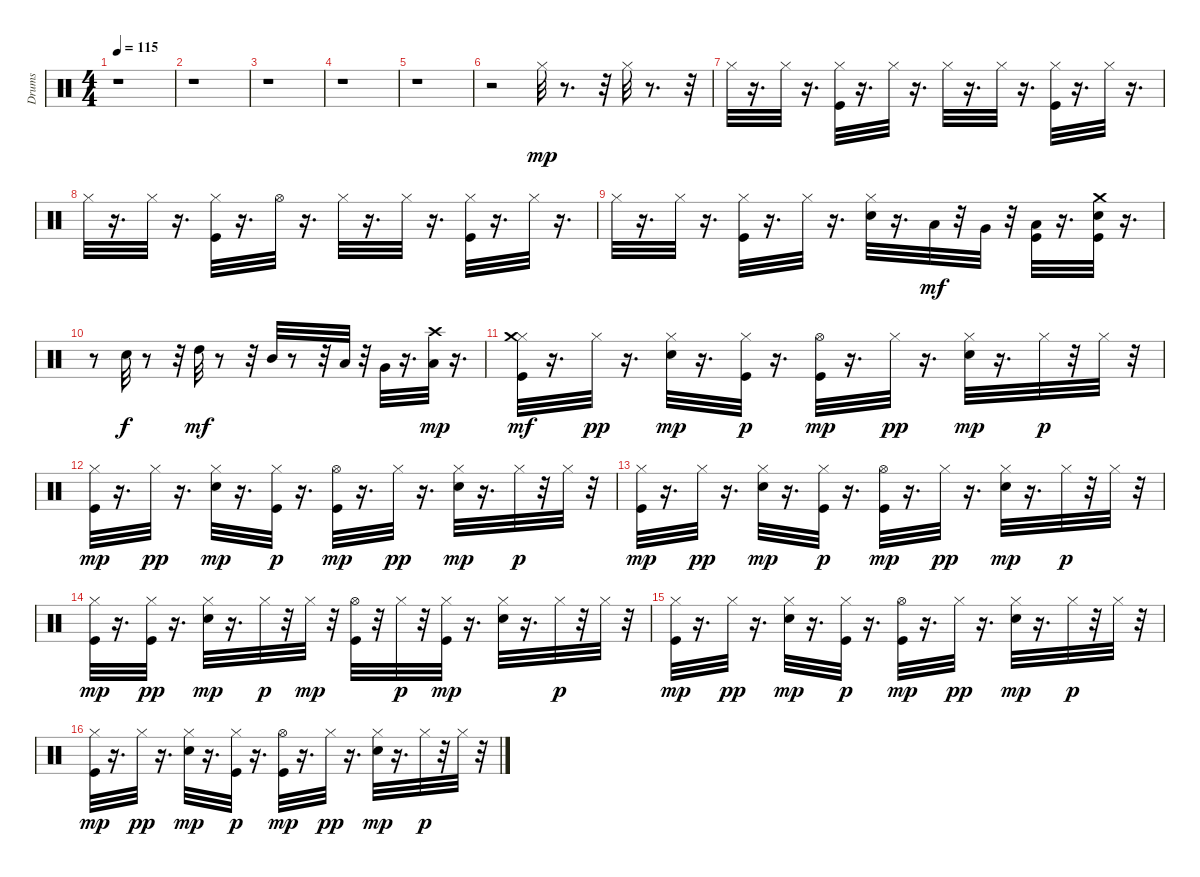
\track ("Drums" "Drums") {instrument percussion}
\staff {score}
\articulation defaults
\ts (4 4)
\tempo 115
\clef neutral
\ks c
r.1{dy pp} |
r.1 |
r.1 |
r.1 |
r.1 |
r.2 "Hi-Hat (closed)".32{dy mp} r.8{d} r.32 "Hi-Hat (closed)".32 r.8{d} r.32 |
"Hi-Hat (closed)".32 r.16{d} "Hi-Hat (closed)".32 r.16{d} ("Kick (hit)" "Hi-Hat (closed)").32 r.16{d} "Hi-Hat (closed)".32 r.16{d} "Hi-Hat (closed)".32 r.16{d} "Hi-Hat (closed)".32 r.16{d} ("Kick (hit)" "Hi-Hat (closed)").32 r.16{d} "Hi-Hat (closed)".32 r.16{d} |
"Hi-Hat (closed)".32 r.16{d} "Hi-Hat (closed)".32 r.16{d} ("Kick (hit)" "Hi-Hat (closed)").32 r.16{d} "Hi-Hat (open)".32 r.16{d} "Hi-Hat (closed)".32 r.16{d} "Hi-Hat (closed)".32 r.16{d} ("Kick (hit)" "Hi-Hat (closed)").32 r.16{d} "Hi-Hat (closed)".32 r.16{d} |
"Hi-Hat (closed)".32 r.16{d} "Hi-Hat (closed)".32 r.16{d} ("Kick (hit)" "Hi-Hat (closed)").32 r.16{d} "Hi-Hat (closed)".32 r.16{d} ("Electric Snare (hit)" "Hi-Hat (closed)").32 r.16{d} "Low Tom (hit)".32{dy mf} r.32 "Very Low Tom (hit)".32 r.32 ("Kick (hit)" "Low Floor Tom (hit)").32 r.16{d} ("Kick (hit)" "Electric Snare (hit)" "Crash medium (hit)").32 r.16{d} |
r.8 "Electric Snare (hit)".32{dy f} r.8 r.32 "High Tom (hit)".32{dy mf} r.8 r.32 "Mid Tom (hit)".32 r.8 r.32 "Low Tom (hit)".32 r.32 "Very Low Tom (hit)".32 r.16{d} ("Low Floor Tom (hit)" "Crash high (hit)").32{dy mp} r.16{d} |
("Kick (hit)" "Hi-Hat (closed)" "Crash medium (hit)").32{dy mf} r.16{d} "Hi-Hat (closed)".32{dy pp} r.16{d} ("Electric Snare (hit)" "Hi-Hat (closed)").32{dy mp} r.16{d} ("Kick (hit)" "Hi-Hat (closed)").32{dy p} r.16{d} ("Kick (hit)" "Hi-Hat (open)").32{dy mp} r.16{d} "Hi-Hat (closed)".32{dy pp} r.16{d} ("Electric Snare (hit)" "Hi-Hat (closed)").32{dy mp} r.16{d} "Hi-Hat (closed)".32{dy p} r.32 "Hi-Hat (closed)".32 r.32 |
("Kick (hit)" "Hi-Hat (closed)").32{dy mp} r.16{d} "Hi-Hat (closed)".32{dy pp} r.16{d} ("Electric Snare (hit)" "Hi-Hat (closed)").32{dy mp} r.16{d} ("Kick (hit)" "Hi-Hat (closed)").32{dy p} r.16{d} ("Kick (hit)" "Hi-Hat (open)").32{dy mp} r.16{d} "Hi-Hat (closed)".32{dy pp} r.16{d} ("Electric Snare (hit)" "Hi-Hat (closed)").32{dy mp} r.16{d} "Hi-Hat (closed)".32{dy p} r.32 "Hi-Hat (closed)".32 r.32 |
("Kick (hit)" "Hi-Hat (closed)").32{dy mp} r.16{d} "Hi-Hat (closed)".32{dy pp} r.16{d} ("Electric Snare (hit)" "Hi-Hat (closed)").32{dy mp} r.16{d} ("Kick (hit)" "Hi-Hat (closed)").32{dy p} r.16{d} ("Kick (hit)" "Hi-Hat (open)").32{dy mp} r.16{d} "Hi-Hat (closed)".32{dy pp} r.16{d} ("Electric Snare (hit)" "Hi-Hat (closed)").32{dy mp} r.16{d} "Hi-Hat (closed)".32{dy p} r.32 "Hi-Hat (closed)".32 r.32 |
("Kick (hit)" "Hi-Hat (closed)").32{dy mp} r.16{d} ("Kick (hit)" "Hi-Hat (closed)").32{dy pp} r.16{d} ("Electric Snare (hit)" "Hi-Hat (closed)").32{dy mp} r.16{d} "Hi-Hat (closed)".32{dy p} r.32 "Hi-Hat (closed)".32{dy mp} r.32 ("Kick (hit)" "Hi-Hat (open)").32 r.32 "Hi-Hat (closed)".32{dy p} r.32 ("Kick (hit)" "Hi-Hat (closed)").32{dy mp} r.16{d} ("Electric Snare (hit)" "Hi-Hat (closed)").32 r.16{d} "Hi-Hat (closed)".32{dy p} r.32 "Hi-Hat (closed)".32 r.32 |
("Kick (hit)" "Hi-Hat (closed)").32{dy mp} r.16{d} "Hi-Hat (closed)".32{dy pp} r.16{d} ("Electric Snare (hit)" "Hi-Hat (closed)").32{dy mp} r.16{d} ("Kick (hit)" "Hi-Hat (closed)").32{dy p} r.16{d} ("Kick (hit)" "Hi-Hat (open)").32{dy mp} r.16{d} "Hi-Hat (closed)".32{dy pp} r.16{d} ("Electric Snare (hit)" "Hi-Hat (closed)").32{dy mp} r.16{d} "Hi-Hat (closed)".32{dy p} r.32 "Hi-Hat (closed)".32 r.32 |
("Kick (hit)" "Hi-Hat (closed)").32{dy mp} r.16{d} "Hi-Hat (closed)".32{dy pp} r.16{d} ("Electric Snare (hit)" "Hi-Hat (closed)").32{dy mp} r.16{d} ("Kick (hit)" "Hi-Hat (closed)").32{dy p} r.16{d} ("Kick (hit)" "Hi-Hat (open)").32{dy mp} r.16{d} "Hi-Hat (closed)".32{dy pp} r.16{d} ("Electric Snare (hit)" "Hi-Hat (closed)").32{dy mp} r.16{d} "Hi-Hat (closed)".32{dy p} r.32 "Hi-Hat (closed)".32 r.32
